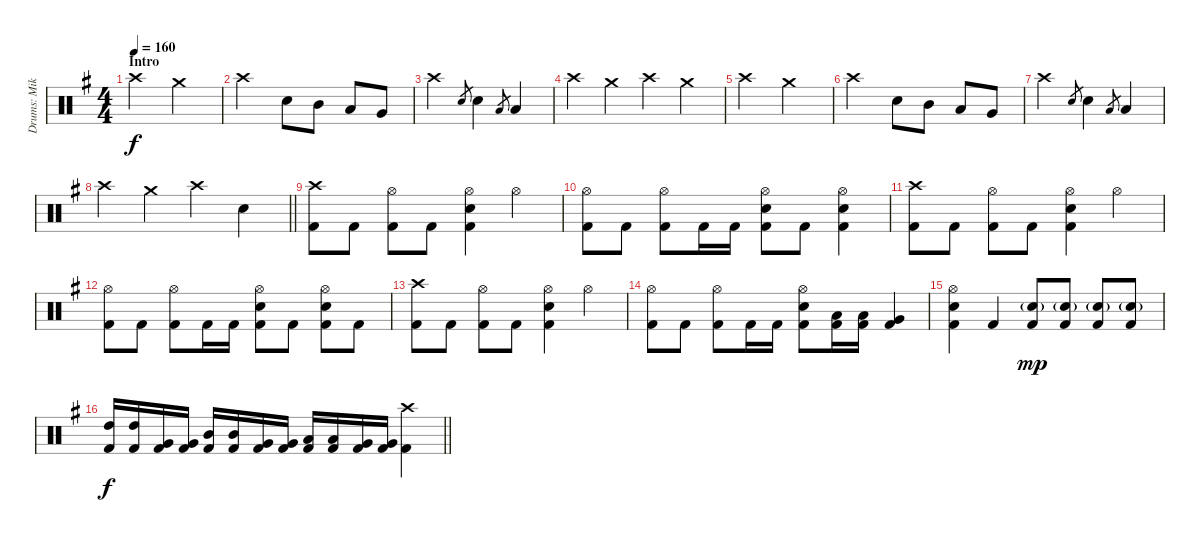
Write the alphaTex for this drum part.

\track ("Drums: Mikko Korsbäck" "Drums: Mik") {instrument percussion}
\staff {score}
\articulation defaults
\ts (4 4)
\section ("" "Intro")
\tempo 160
\clef neutral
\ks eminor "Crash high (hit)".2{dy f} "Crash medium (hit)".2
|
"Crash high (hit)".2 "Electric Snare (hit)".8 "Mid Tom (hit)".8 "Low Tom (hit)".8 "Very Low Tom (hit)".8 |
"Crash high (hit)".2 "Electric Snare (hit)".8{gr} "Electric Snare (hit)".4 "Low Tom (hit)".8{gr} "Low Tom (hit)".4 |
"Crash high (hit)".4 "Crash medium (hit)".4 "Crash high (hit)".4 "Crash medium (hit)".4 |
"Crash high (hit)".2 "Crash medium (hit)".2 |
"Crash high (hit)".2 "Electric Snare (hit)".8 "Mid Tom (hit)".8 "Low Tom (hit)".8 "Very Low Tom (hit)".8 |
"Crash high (hit)".2 "Electric Snare (hit)".8{gr} "Electric Snare (hit)".4 "Low Tom (hit)".8{gr} "Low Tom (hit)".4 |
\barLineRight lightlight "Crash high (hit)".4 "Crash medium (hit)".4 "Crash high (hit)".4 "Electric Snare (hit)".4
|
("Crash high (hit)" "Kick (hit) 2").8 "Kick (hit) 2".8 ("Hi-Hat (open)" "Kick (hit) 2").8 "Kick (hit) 2".8 ("Hi-Hat (open)" "Electric Snare (hit)" "Kick (hit) 2").4 "Hi-Hat (open)".4 |
("Hi-Hat (open)" "Kick (hit) 2").8 "Kick (hit) 2".8 ("Hi-Hat (open)" "Kick (hit) 2").8 "Kick (hit) 2".16 "Kick (hit) 2".16 ("Hi-Hat (open)" "Electric Snare (hit)" "Kick (hit) 2").8 "Kick (hit) 2".8 ("Hi-Hat (open)" "Electric Snare (hit)" "Kick (hit) 2").4 |
("Crash high (hit)" "Kick (hit) 2").8 "Kick (hit) 2".8 ("Hi-Hat (open)" "Kick (hit) 2").8 "Kick (hit) 2".8 ("Hi-Hat (open)" "Electric Snare (hit)" "Kick (hit) 2").4 "Hi-Hat (open)".4 |
("Hi-Hat (open)" "Kick (hit) 2").8 "Kick (hit) 2".8 ("Hi-Hat (open)" "Kick (hit) 2").8 "Kick (hit) 2".16 "Kick (hit) 2".16 ("Hi-Hat (open)" "Electric Snare (hit)" "Kick (hit) 2").8 "Kick (hit) 2".8 ("Hi-Hat (open)" "Electric Snare (hit)" "Kick (hit) 2").8 "Kick (hit) 2".8 |
("Crash high (hit)" "Kick (hit) 2").8 "Kick (hit) 2".8 ("Hi-Hat (open)" "Kick (hit) 2").8 "Kick (hit) 2".8 ("Hi-Hat (open)" "Electric Snare (hit)" "Kick (hit) 2").4 "Hi-Hat (open)".4 |
("Hi-Hat (open)" "Kick (hit) 2").8 "Kick (hit) 2".8 ("Hi-Hat (open)" "Kick (hit) 2").8 "Kick (hit) 2".16 "Kick (hit) 2".16 ("Hi-Hat (open)" "Electric Snare (hit)" "Kick (hit) 2").8 ("Low Tom (hit)" "Kick (hit) 2").16 ("Low Tom (hit)" "Kick (hit) 2").16 ("Very Low Tom (hit)" "Kick (hit) 2").4 |
("Hi-Hat (open)" "Electric Snare (hit)" "Kick (hit) 2").4 "Kick (hit) 2".4 ("Electric Snare (hit)"{g} "Kick (hit) 2").8{dy mp} ("Electric Snare (hit)"{g} "Kick (hit) 2").8 ("Electric Snare (hit)"{g} "Kick (hit) 2").8 ("Electric Snare (hit)"{g} "Kick (hit) 2").8 |
\barLineRight lightlight
("High Tom (hit)" "Kick (hit) 2").16{dy f} ("High Tom (hit)" "Kick (hit) 2").16 ("Very Low Tom (hit)" "Kick (hit) 2").16 ("Very Low Tom (hit)" "Kick (hit) 2").16 ("Mid Tom (hit)" "Kick (hit) 2").16 ("Mid Tom (hit)" "Kick (hit) 2").16 ("Very Low Tom (hit)" "Kick (hit) 2").16 ("Very Low Tom (hit)" "Kick (hit) 2").16 ("Low Tom (hit)" "Kick (hit) 2").16 ("Low Tom (hit)" "Kick (hit) 2").16 ("Very Low Tom (hit)" "Kick (hit) 2").16 ("Very Low Tom (hit)" "Kick (hit) 2").16 ("Crash high (hit)" "Kick (hit) 2").4
